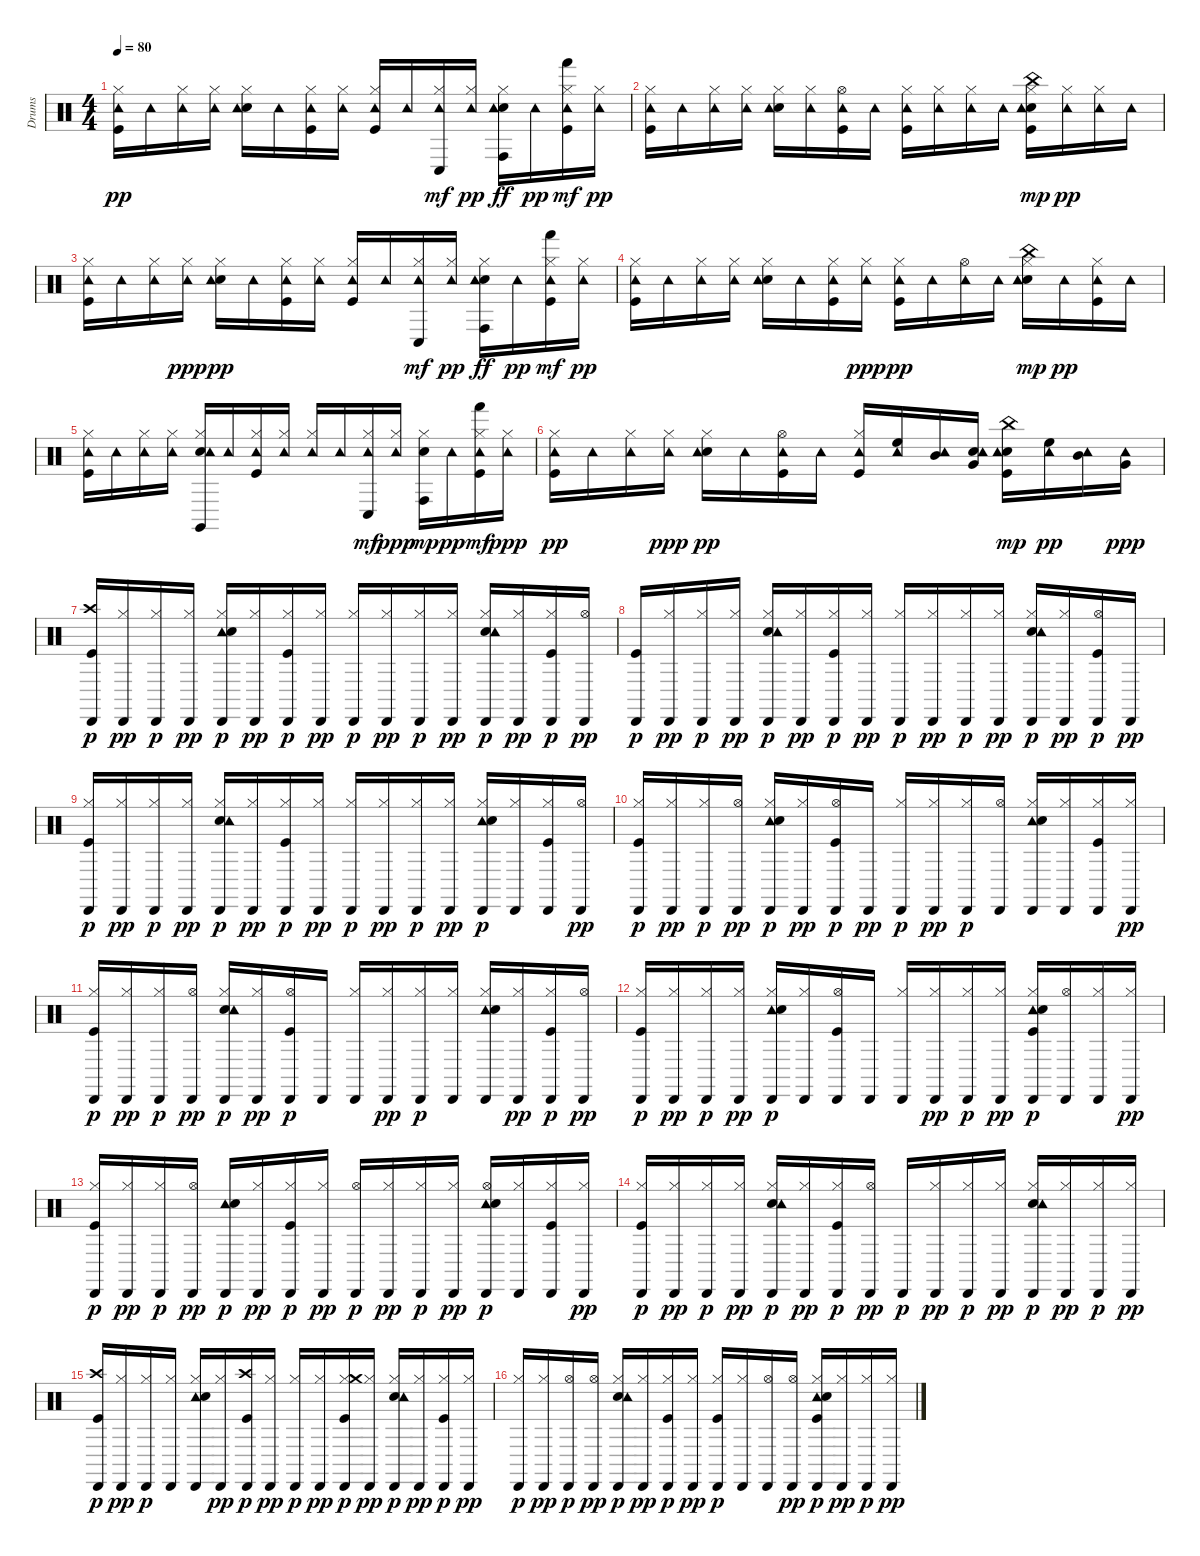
\track ("Drums   " "Drums   ") {instrument percussion}
\staff {score}
\articulation defaults
\ts (4 4)
\tempo 80
\clef neutral
\ks c
("Kick (hit)" "Hi-Hat (closed)" "Tambourine (hit)").16{dy pp} "Tambourine (hit)".16 ("Hi-Hat (closed)" "Tambourine (hit)").16 ("Hi-Hat (closed)" "Tambourine (hit)").16 ("Snare (hit) 2" "Hi-Hat (closed)" "Tambourine (hit)").16 "Tambourine (hit)".16 ("Kick (hit)" "Hi-Hat (closed)" "Tambourine (hit)").16 ("Hi-Hat (closed)" "Tambourine (hit)").16 ("Kick (hit)" "Hi-Hat (closed)" "Tambourine (hit)").16 "Tambourine (hit)".16 ("Hi-Hat (closed)" "Tambourine (hit)" "Conga low (hit)").16{dy mf} ("Hi-Hat (closed)" "Tambourine (hit)").16{dy pp} ("Snare (hit) 2" "Hi-Hat (closed)" "Tambourine (hit)" "Conga high (hit)").16{dy ff} "Tambourine (hit)".16{dy pp} ("Kick (hit)" "Hi-Hat (closed)" "Tambourine (hit)" "Hand (hit)").16{dy mf} ("Hi-Hat (closed)" "Tambourine (hit)").16{dy pp} |
("Kick (hit)" "Hi-Hat (closed)" "Tambourine (hit)").16 "Tambourine (hit)".16 ("Hi-Hat (closed)" "Tambourine (hit)").16 ("Hi-Hat (closed)" "Tambourine (hit)").16 ("Snare (hit) 2" "Hi-Hat (closed)" "Tambourine (hit)").16 ("Hi-Hat (closed)" "Tambourine (hit)").16 ("Kick (hit)" "Hi-Hat (open)" "Tambourine (hit)").16 "Tambourine (hit)".16 ("Kick (hit)" "Hi-Hat (closed)" "Tambourine (hit)").16 ("Hi-Hat (closed)" "Tambourine (hit)").16 ("Hi-Hat (closed)" "Tambourine (hit)").16 "Tambourine (hit)".16 ("Kick (hit)" "Snare (hit) 2" "Hi-Hat (closed)" "China (hit)" "Tambourine (hit)").16{dy mp} ("Hi-Hat (closed)" "Tambourine (hit)").16{dy pp} ("Hi-Hat (closed)" "Tambourine (hit)").16 "Tambourine (hit)".16 |
("Kick (hit)" "Hi-Hat (closed)" "Tambourine (hit)").16 "Tambourine (hit)".16 ("Hi-Hat (closed)" "Tambourine (hit)").16 ("Hi-Hat (closed)" "Tambourine (hit)").16{dy ppp} ("Snare (hit) 2" "Hi-Hat (closed)" "Tambourine (hit)").16{dy pp} "Tambourine (hit)".16 ("Kick (hit)" "Hi-Hat (closed)" "Tambourine (hit)").16 ("Hi-Hat (closed)" "Tambourine (hit)").16 ("Kick (hit)" "Hi-Hat (closed)" "Tambourine (hit)").16 "Tambourine (hit)".16 ("Hi-Hat (closed)" "Tambourine (hit)" "Conga low (hit)").16{dy mf} ("Hi-Hat (closed)" "Tambourine (hit)").16{dy pp} ("Snare (hit) 2" "Hi-Hat (closed)" "Tambourine (hit)" "Conga high (hit)").16{dy ff} "Tambourine (hit)".16{dy pp} ("Kick (hit)" "Hi-Hat (closed)" "Tambourine (hit)" "Hand (hit)").16{dy mf} ("Hi-Hat (closed)" "Tambourine (hit)").16{dy pp} |
("Kick (hit)" "Hi-Hat (closed)" "Tambourine (hit)").16 "Tambourine (hit)".16 ("Hi-Hat (closed)" "Tambourine (hit)").16 ("Hi-Hat (closed)" "Tambourine (hit)").16 ("Snare (hit) 2" "Hi-Hat (closed)" "Tambourine (hit)").16 "Tambourine (hit)".16 ("Kick (hit)" "Hi-Hat (closed)" "Tambourine (hit)").16 ("Hi-Hat (closed)" "Tambourine (hit)").16{dy ppp} ("Kick (hit)" "Hi-Hat (closed)" "Tambourine (hit)").16{dy pp} "Tambourine (hit)".16 ("Hi-Hat (open)" "Tambourine (hit)").16 "Tambourine (hit)".16 ("Snare (hit) 2" "Hi-Hat (closed)" "China (hit)" "Tambourine (hit)").16{dy mp} "Tambourine (hit)".16{dy pp} ("Kick (hit)" "Hi-Hat (closed)" "Tambourine (hit)").16 "Tambourine (hit)".16 |
("Kick (hit)" "Hi-Hat (closed)" "Tambourine (hit)").16 "Tambourine (hit)".16 ("Hi-Hat (closed)" "Tambourine (hit)").16 ("Hi-Hat (closed)" "Tambourine (hit)").16 ("Snare (hit) 2" "Hi-Hat (closed)" "Tambourine (hit)" "Claves (hit)").16 "Tambourine (hit)".16 ("Kick (hit)" "Hi-Hat (closed)" "Tambourine (hit)").16 ("Hi-Hat (closed)" "Tambourine (hit)").16 ("Hi-Hat (closed)" "Tambourine (hit)").16 "Tambourine (hit)".16 ("Hi-Hat (closed)" "Tambourine (hit)" "Conga low (hit)").16{dy mf} ("Hi-Hat (closed)" "Tambourine (hit)").16{dy ppp} ("Snare (hit) 2" "Hi-Hat (closed)" "Conga high (hit)").16{dy mp} "Tambourine (hit)".16{dy pp} ("Kick (hit)" "Hi-Hat (closed)" "Tambourine (hit)" "Hand (hit)").16{dy mf} ("Hi-Hat (closed)" "Tambourine (hit)").16{dy ppp} |
("Kick (hit)" "Hi-Hat (closed)" "Tambourine (hit)").16{dy pp} "Tambourine (hit)".16 ("Hi-Hat (closed)" "Tambourine (hit)").16 ("Hi-Hat (closed)" "Tambourine (hit)").16{dy ppp} ("Snare (hit) 2" "Hi-Hat (closed)" "Tambourine (hit)").16{dy pp} "Tambourine (hit)".16 ("Kick (hit)" "Hi-Hat (open)" "Tambourine (hit)").16 "Tambourine (hit)".16 ("Kick (hit)" "Hi-Hat (closed)" "Tambourine (hit)").16 ("High Floor Tom (hit)" "Tambourine (hit)").16 ("Mid Tom (hit)" "Tambourine (hit)").16 ("Snare (hit) 2" "Very Low Tom (hit)" "Tambourine (hit)").16 ("Kick (hit)" "Snare (hit) 2" "China (hit)" "Tambourine (hit)").16{dy mp} ("High Floor Tom (hit)" "Tambourine (hit)").16{dy pp} ("Mid Tom (hit)" "Tambourine (hit)").16 ("Very Low Tom (hit)" "Tambourine (hit)").16{dy ppp} |
("Kick (hit)" "Crash high (hit)" "Cabasa (hit)").16{dy p} ("Hi-Hat (closed)" "Cabasa (hit)").16{dy pp} ("Hi-Hat (closed)" "Cabasa (hit)").16{dy p} ("Hi-Hat (closed)" "Cabasa (hit)").16{dy pp} ("Tambourine (hit)" "Snare (hit) 2" "Hi-Hat (closed)" "Cabasa (hit)").16{dy p} ("Hi-Hat (closed)" "Cabasa (hit)").16{dy pp} ("Kick (hit)" "Hi-Hat (closed)" "Cabasa (hit)").16{dy p} ("Hi-Hat (closed)" "Cabasa (hit)").16{dy pp} ("Hi-Hat (closed)" "Cabasa (hit)").16{dy p} ("Hi-Hat (closed)" "Cabasa (hit)").16{dy pp} ("Hi-Hat (closed)" "Cabasa (hit)").16{dy p} ("Hi-Hat (closed)" "Cabasa (hit)").16{dy pp} ("Snare (hit) 2" "Hi-Hat (closed)" "Tambourine (hit)" "Cabasa (hit)").16{dy p} ("Hi-Hat (closed)" "Cabasa (hit)").16{dy pp} ("Kick (hit)" "Hi-Hat (closed)" "Cabasa (hit)").16{dy p} ("Hi-Hat (open)" "Cabasa (hit)").16{dy pp} |
("Kick (hit)" "Cabasa (hit)").16{dy p} ("Hi-Hat (closed)" "Cabasa (hit)").16{dy pp} ("Hi-Hat (closed)" "Cabasa (hit)").16{dy p} ("Hi-Hat (closed)" "Cabasa (hit)").16{dy pp} ("Snare (hit) 2" "Hi-Hat (closed)" "Tambourine (hit)" "Cabasa (hit)").16{dy p} ("Hi-Hat (closed)" "Cabasa (hit)").16{dy pp} ("Kick (hit)" "Hi-Hat (closed)" "Cabasa (hit)").16{dy p} ("Hi-Hat (closed)" "Cabasa (hit)").16{dy pp} ("Hi-Hat (closed)" "Cabasa (hit)").16{dy p} ("Hi-Hat (closed)" "Cabasa (hit)").16{dy pp} ("Hi-Hat (closed)" "Cabasa (hit)").16{dy p} ("Hi-Hat (closed)" "Cabasa (hit)").16{dy pp} ("Snare (hit) 2" "Hi-Hat (closed)" "Tambourine (hit)" "Cabasa (hit)").16{dy p} ("Hi-Hat (closed)" "Cabasa (hit)").16{dy pp} ("Kick (hit)" "Hi-Hat (open)" "Cabasa (hit)").16{dy p} "Cabasa (hit)".16{dy pp} |
("Kick (hit)" "Hi-Hat (closed)" "Cabasa (hit)").16{dy p} ("Hi-Hat (closed)" "Cabasa (hit)").16{dy pp} ("Hi-Hat (closed)" "Cabasa (hit)").16{dy p} ("Hi-Hat (closed)" "Cabasa (hit)").16{dy pp} ("Snare (hit) 2" "Hi-Hat (closed)" "Tambourine (hit)" "Cabasa (hit)").16{dy p} ("Hi-Hat (closed)" "Cabasa (hit)").16{dy pp} ("Kick (hit)" "Hi-Hat (closed)" "Cabasa (hit)").16{dy p} ("Hi-Hat (closed)" "Cabasa (hit)").16{dy pp} ("Hi-Hat (closed)" "Cabasa (hit)").16{dy p} ("Hi-Hat (closed)" "Cabasa (hit)").16{dy pp} ("Hi-Hat (closed)" "Cabasa (hit)").16{dy p} ("Hi-Hat (closed)" "Cabasa (hit)").16{dy pp} ("Tambourine (hit)" "Snare (hit) 2" "Hi-Hat (closed)" "Cabasa (hit)").16{dy p} ("Hi-Hat (closed)" "Cabasa (hit)").16 ("Kick (hit)" "Hi-Hat (closed)" "Cabasa (hit)").16 ("Hi-Hat (open)" "Cabasa (hit)").16{dy pp} |
("Kick (hit)" "Hi-Hat (closed)" "Cabasa (hit)").16{dy p} ("Hi-Hat (closed)" "Cabasa (hit)").16{dy pp} ("Hi-Hat (closed)" "Cabasa (hit)").16{dy p} ("Hi-Hat (open)" "Cabasa (hit)").16{dy pp} ("Tambourine (hit)" "Snare (hit) 2" "Hi-Hat (closed)" "Cabasa (hit)").16{dy p} ("Hi-Hat (closed)" "Cabasa (hit)").16{dy pp} ("Kick (hit)" "Hi-Hat (open)" "Cabasa (hit)").16{dy p} "Cabasa (hit)".16{dy pp} ("Hi-Hat (closed)" "Cabasa (hit)").16{dy p} ("Hi-Hat (closed)" "Cabasa (hit)").16{dy pp} ("Hi-Hat (closed)" "Cabasa (hit)").16{dy p} ("Hi-Hat (open)" "Cabasa (hit)").16 ("Tambourine (hit)" "Snare (hit) 2" "Hi-Hat (closed)" "Cabasa (hit)").16 ("Hi-Hat (closed)" "Cabasa (hit)").16 ("Kick (hit)" "Hi-Hat (closed)" "Cabasa (hit)").16 ("Hi-Hat (closed)" "Cabasa (hit)").16{dy pp} |
("Kick (hit)" "Hi-Hat (closed)" "Cabasa (hit)").16{dy p} ("Hi-Hat (closed)" "Cabasa (hit)").16{dy pp} ("Hi-Hat (closed)" "Cabasa (hit)").16{dy p} ("Hi-Hat (open)" "Cabasa (hit)").16{dy pp} ("Snare (hit) 2" "Hi-Hat (closed)" "Tambourine (hit)" "Cabasa (hit)").16{dy p} ("Hi-Hat (closed)" "Cabasa (hit)").16{dy pp} ("Kick (hit)" "Hi-Hat (open)" "Cabasa (hit)").16{dy p} "Cabasa (hit)".16 ("Hi-Hat (closed)" "Cabasa (hit)").16 ("Hi-Hat (closed)" "Cabasa (hit)").16{dy pp} ("Hi-Hat (closed)" "Cabasa (hit)").16{dy p} ("Hi-Hat (closed)" "Cabasa (hit)").16 ("Tambourine (hit)" "Snare (hit) 2" "Hi-Hat (closed)" "Cabasa (hit)").16 ("Hi-Hat (closed)" "Cabasa (hit)").16{dy pp} ("Kick (hit)" "Hi-Hat (closed)" "Cabasa (hit)").16{dy p} ("Hi-Hat (open)" "Cabasa (hit)").16{dy pp} |
("Kick (hit)" "Hi-Hat (closed)" "Cabasa (hit)").16{dy p} ("Hi-Hat (closed)" "Cabasa (hit)").16{dy pp} ("Hi-Hat (closed)" "Cabasa (hit)").16{dy p} ("Hi-Hat (closed)" "Cabasa (hit)").16{dy pp} ("Tambourine (hit)" "Snare (hit) 2" "Hi-Hat (closed)" "Cabasa (hit)").16{dy p} ("Hi-Hat (closed)" "Cabasa (hit)").16 ("Kick (hit)" "Hi-Hat (open)" "Cabasa (hit)").16 "Cabasa (hit)".16 ("Hi-Hat (closed)" "Cabasa (hit)").16 ("Hi-Hat (closed)" "Cabasa (hit)").16{dy pp} ("Hi-Hat (closed)" "Cabasa (hit)").16{dy p} ("Hi-Hat (closed)" "Cabasa (hit)").16{dy pp} ("Tambourine (hit)" "Kick (hit)" "Snare (hit) 2" "Hi-Hat (closed)" "Cabasa (hit)").16{dy p} ("Hi-Hat (open)" "Cabasa (hit)").16 ("Hi-Hat (closed)" "Cabasa (hit)").16 ("Hi-Hat (closed)" "Cabasa (hit)").16{dy pp} |
("Kick (hit)" "Hi-Hat (closed)" "Cabasa (hit)").16{dy p} ("Hi-Hat (closed)" "Cabasa (hit)").16{dy pp} ("Hi-Hat (closed)" "Cabasa (hit)").16{dy p} ("Hi-Hat (open)" "Cabasa (hit)").16{dy pp} ("Tambourine (hit)" "Snare (hit) 2" "Cabasa (hit)").16{dy p} ("Hi-Hat (closed)" "Cabasa (hit)").16{dy pp} ("Kick (hit)" "Hi-Hat (closed)" "Cabasa (hit)").16{dy p} ("Hi-Hat (closed)" "Cabasa (hit)").16{dy pp} ("Hi-Hat (open)" "Cabasa (hit)").16{dy p} ("Hi-Hat (closed)" "Cabasa (hit)").16{dy pp} ("Hi-Hat (closed)" "Cabasa (hit)").16{dy p} ("Hi-Hat (closed)" "Cabasa (hit)").16{dy pp} ("Tambourine (hit)" "Snare (hit) 2" "Hi-Hat (open)" "Cabasa (hit)").16{dy p} ("Hi-Hat (closed)" "Cabasa (hit)").16 ("Kick (hit)" "Hi-Hat (closed)" "Cabasa (hit)").16 ("Hi-Hat (closed)" "Cabasa (hit)").16{dy pp} |
("Kick (hit)" "Hi-Hat (closed)" "Cabasa (hit)").16{dy p} ("Hi-Hat (closed)" "Cabasa (hit)").16{dy pp} ("Hi-Hat (closed)" "Cabasa (hit)").16{dy p} ("Hi-Hat (closed)" "Cabasa (hit)").16{dy pp} ("Snare (hit) 2" "Hi-Hat (closed)" "Tambourine (hit)" "Cabasa (hit)").16{dy p} ("Hi-Hat (closed)" "Cabasa (hit)").16{dy pp} ("Kick (hit)" "Hi-Hat (closed)" "Cabasa (hit)").16{dy p} ("Hi-Hat (open)" "Cabasa (hit)").16{dy pp} "Cabasa (hit)".16{dy p} ("Hi-Hat (closed)" "Cabasa (hit)").16{dy pp} ("Hi-Hat (closed)" "Cabasa (hit)").16{dy p} ("Hi-Hat (closed)" "Cabasa (hit)").16{dy pp} ("Snare (hit) 2" "Hi-Hat (closed)" "Tambourine (hit)" "Cabasa (hit)").16{dy p} ("Hi-Hat (closed)" "Cabasa (hit)").16{dy pp} ("Hi-Hat (closed)" "Cabasa (hit)").16{dy p} ("Hi-Hat (closed)" "Cabasa (hit)").16{dy pp} |
("Kick (hit)" "Crash high (hit)" "Cabasa (hit)").16{dy p} ("Hi-Hat (closed)" "Cabasa (hit)").16{dy pp} ("Hi-Hat (closed)" "Cabasa (hit)").16{dy p} ("Hi-Hat (closed)" "Cabasa (hit)").16 ("Tambourine (hit)" "Snare (hit) 2" "Hi-Hat (closed)" "Cabasa (hit)").16 ("Hi-Hat (closed)" "Cabasa (hit)").16{dy pp} ("Kick (hit)" "Crash high (hit)" "Cabasa (hit)").16{dy p} ("Hi-Hat (closed)" "Cabasa (hit)").16{dy pp} ("Hi-Hat (closed)" "Cabasa (hit)").16{dy p} ("Hi-Hat (closed)" "Cabasa (hit)").16{dy pp} ("Kick (hit)" "Hi-Hat (closed)" "Crash medium (hit)" "Cabasa (hit)").16{dy p} ("Hi-Hat (closed)" "Cabasa (hit)").16{dy pp} ("Snare (hit) 2" "Hi-Hat (closed)" "Tambourine (hit)" "Cabasa (hit)").16{dy p} ("Hi-Hat (closed)" "Cabasa (hit)").16{dy pp} ("Kick (hit)" "Hi-Hat (closed)" "Cabasa (hit)").16{dy p} ("Hi-Hat (closed)" "Cabasa (hit)").16{dy pp} |
("Hi-Hat (closed)" "Cabasa (hit)").16{dy p} ("Hi-Hat (closed)" "Cabasa (hit)").16{dy pp} ("Hi-Hat (open)" "Cabasa (hit)").16{dy p} ("Hi-Hat (open)" "Cabasa (hit)").16{dy pp} ("Snare (hit) 2" "Hi-Hat (closed)" "Tambourine (hit)" "Cabasa (hit)").16{dy p} ("Hi-Hat (closed)" "Cabasa (hit)").16{dy pp} ("Kick (hit)" "Hi-Hat (closed)" "Cabasa (hit)").16{dy p} ("Hi-Hat (closed)" "Cabasa (hit)").16{dy pp} ("Kick (hit)" "Hi-Hat (closed)" "Cabasa (hit)").16{dy p} ("Hi-Hat (closed)" "Cabasa (hit)").16 ("Hi-Hat (open)" "Cabasa (hit)").16 ("Hi-Hat (open)" "Cabasa (hit)").16{dy pp} ("Tambourine (hit)" "Kick (hit)" "Snare (hit) 2" "Hi-Hat (closed)" "Cabasa (hit)").16{dy p} ("Hi-Hat (closed)" "Cabasa (hit)").16{dy pp} ("Hi-Hat (closed)" "Cabasa (hit)").16{dy p} ("Hi-Hat (closed)" "Cabasa (hit)").16{dy pp}
